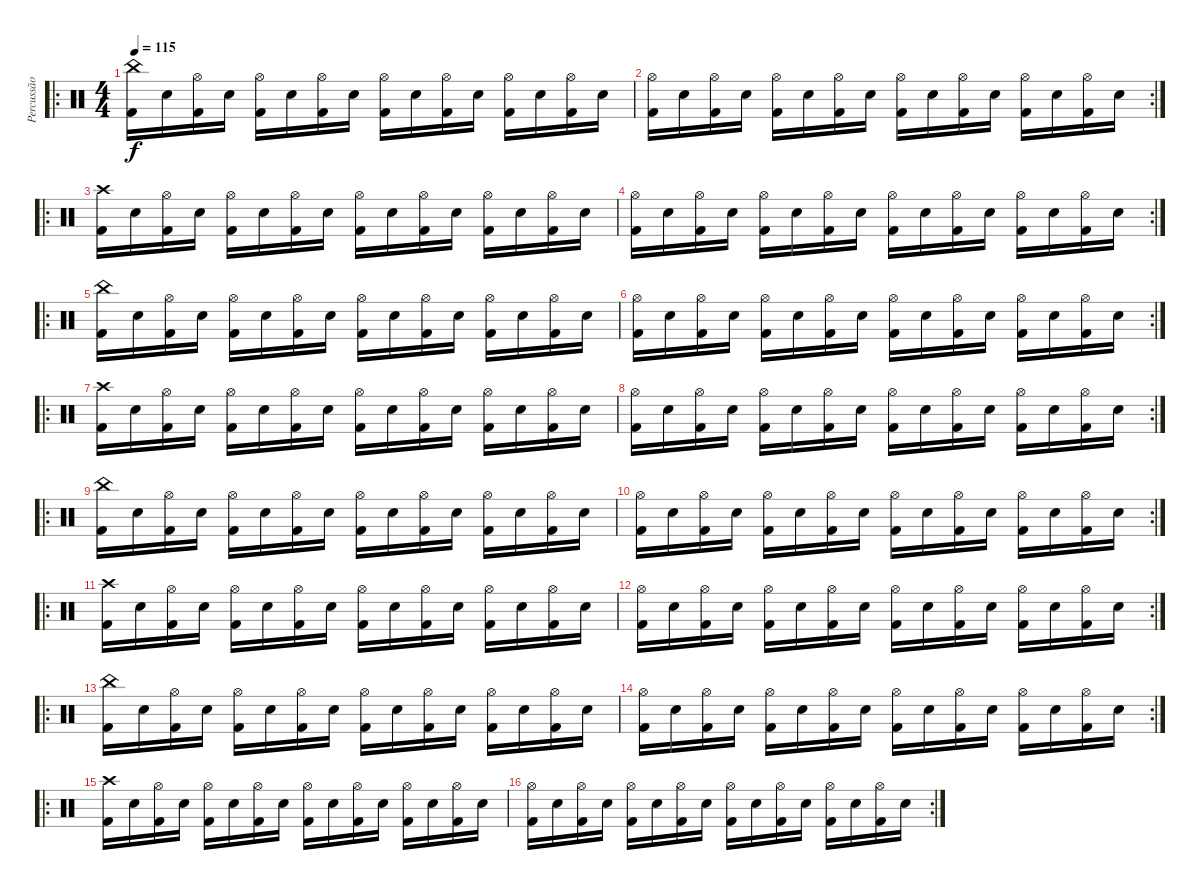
\track ("Percussão" "Percussão") {instrument percussion}
\staff {score}
\articulation defaults
\ro
\ts (4 4)
\tempo 115
\clef neutral
\ks c
("China (hit)" "Kick (hit) 2").16{dy f} "Electric Snare (hit)".16 ("Hi-Hat (open)" "Kick (hit) 2").16 "Electric Snare (hit)".16 ("Hi-Hat (open)" "Kick (hit) 2").16 "Electric Snare (hit)".16 ("Hi-Hat (open)" "Kick (hit) 2").16 "Electric Snare (hit)".16 ("Hi-Hat (open)" "Kick (hit) 2").16 "Electric Snare (hit)".16 ("Hi-Hat (open)" "Kick (hit) 2").16 "Electric Snare (hit)".16 ("Hi-Hat (open)" "Kick (hit) 2").16 "Electric Snare (hit)".16 ("Hi-Hat (open)" "Kick (hit) 2").16 "Electric Snare (hit)".16 |
\rc 2
("Hi-Hat (open)" "Kick (hit) 2").16 "Electric Snare (hit)".16 ("Hi-Hat (open)" "Kick (hit) 2").16 "Electric Snare (hit)".16 ("Hi-Hat (open)" "Kick (hit) 2").16 "Electric Snare (hit)".16 ("Hi-Hat (open)" "Kick (hit) 2").16 "Electric Snare (hit)".16 ("Hi-Hat (open)" "Kick (hit) 2").16 "Electric Snare (hit)".16 ("Hi-Hat (open)" "Kick (hit) 2").16 "Electric Snare (hit)".16 ("Hi-Hat (open)" "Kick (hit) 2").16 "Electric Snare (hit)".16 ("Hi-Hat (open)" "Kick (hit) 2").16 "Electric Snare (hit)".16 |
\ro
("Crash high (hit)" "Kick (hit) 2").16 "Electric Snare (hit)".16 ("Hi-Hat (open)" "Kick (hit) 2").16 "Electric Snare (hit)".16 ("Hi-Hat (open)" "Kick (hit) 2").16 "Electric Snare (hit)".16 ("Hi-Hat (open)" "Kick (hit) 2").16 "Electric Snare (hit)".16 ("Hi-Hat (open)" "Kick (hit) 2").16 "Electric Snare (hit)".16 ("Hi-Hat (open)" "Kick (hit) 2").16 "Electric Snare (hit)".16 ("Hi-Hat (open)" "Kick (hit) 2").16 "Electric Snare (hit)".16 ("Hi-Hat (open)" "Kick (hit) 2").16 "Electric Snare (hit)".16 |
\rc 2
("Hi-Hat (open)" "Kick (hit) 2").16 "Electric Snare (hit)".16 ("Hi-Hat (open)" "Kick (hit) 2").16 "Electric Snare (hit)".16 ("Hi-Hat (open)" "Kick (hit) 2").16 "Electric Snare (hit)".16 ("Hi-Hat (open)" "Kick (hit) 2").16 "Electric Snare (hit)".16 ("Hi-Hat (open)" "Kick (hit) 2").16 "Electric Snare (hit)".16 ("Hi-Hat (open)" "Kick (hit) 2").16 "Electric Snare (hit)".16 ("Hi-Hat (open)" "Kick (hit) 2").16 "Electric Snare (hit)".16 ("Hi-Hat (open)" "Kick (hit) 2").16 "Electric Snare (hit)".16 |
\ro
("China (hit)" "Kick (hit) 2").16 "Electric Snare (hit)".16 ("Hi-Hat (open)" "Kick (hit) 2").16 "Electric Snare (hit)".16 ("Hi-Hat (open)" "Kick (hit) 2").16 "Electric Snare (hit)".16 ("Hi-Hat (open)" "Kick (hit) 2").16 "Electric Snare (hit)".16 ("Hi-Hat (open)" "Kick (hit) 2").16 "Electric Snare (hit)".16 ("Hi-Hat (open)" "Kick (hit) 2").16 "Electric Snare (hit)".16 ("Hi-Hat (open)" "Kick (hit) 2").16 "Electric Snare (hit)".16 ("Hi-Hat (open)" "Kick (hit) 2").16 "Electric Snare (hit)".16 |
\rc 2
("Hi-Hat (open)" "Kick (hit) 2").16 "Electric Snare (hit)".16 ("Hi-Hat (open)" "Kick (hit) 2").16 "Electric Snare (hit)".16 ("Hi-Hat (open)" "Kick (hit) 2").16 "Electric Snare (hit)".16 ("Hi-Hat (open)" "Kick (hit) 2").16 "Electric Snare (hit)".16 ("Hi-Hat (open)" "Kick (hit) 2").16 "Electric Snare (hit)".16 ("Hi-Hat (open)" "Kick (hit) 2").16 "Electric Snare (hit)".16 ("Hi-Hat (open)" "Kick (hit) 2").16 "Electric Snare (hit)".16 ("Hi-Hat (open)" "Kick (hit) 2").16 "Electric Snare (hit)".16 |
\ro
("Crash high (hit)" "Kick (hit) 2").16 "Electric Snare (hit)".16 ("Hi-Hat (open)" "Kick (hit) 2").16 "Electric Snare (hit)".16 ("Hi-Hat (open)" "Kick (hit) 2").16 "Electric Snare (hit)".16 ("Hi-Hat (open)" "Kick (hit) 2").16 "Electric Snare (hit)".16 ("Hi-Hat (open)" "Kick (hit) 2").16 "Electric Snare (hit)".16 ("Hi-Hat (open)" "Kick (hit) 2").16 "Electric Snare (hit)".16 ("Hi-Hat (open)" "Kick (hit) 2").16 "Electric Snare (hit)".16 ("Hi-Hat (open)" "Kick (hit) 2").16 "Electric Snare (hit)".16 |
\rc 2
("Hi-Hat (open)" "Kick (hit) 2").16 "Electric Snare (hit)".16 ("Hi-Hat (open)" "Kick (hit) 2").16 "Electric Snare (hit)".16 ("Hi-Hat (open)" "Kick (hit) 2").16 "Electric Snare (hit)".16 ("Hi-Hat (open)" "Kick (hit) 2").16 "Electric Snare (hit)".16 ("Hi-Hat (open)" "Kick (hit) 2").16 "Electric Snare (hit)".16 ("Hi-Hat (open)" "Kick (hit) 2").16 "Electric Snare (hit)".16 ("Hi-Hat (open)" "Kick (hit) 2").16 "Electric Snare (hit)".16 ("Hi-Hat (open)" "Kick (hit) 2").16 "Electric Snare (hit)".16 |
\ro
("China (hit)" "Kick (hit) 2").16 "Electric Snare (hit)".16 ("Hi-Hat (open)" "Kick (hit) 2").16 "Electric Snare (hit)".16 ("Hi-Hat (open)" "Kick (hit) 2").16 "Electric Snare (hit)".16 ("Hi-Hat (open)" "Kick (hit) 2").16 "Electric Snare (hit)".16 ("Hi-Hat (open)" "Kick (hit) 2").16 "Electric Snare (hit)".16 ("Hi-Hat (open)" "Kick (hit) 2").16 "Electric Snare (hit)".16 ("Hi-Hat (open)" "Kick (hit) 2").16 "Electric Snare (hit)".16 ("Hi-Hat (open)" "Kick (hit) 2").16 "Electric Snare (hit)".16 |
\rc 2
("Hi-Hat (open)" "Kick (hit) 2").16 "Electric Snare (hit)".16 ("Hi-Hat (open)" "Kick (hit) 2").16 "Electric Snare (hit)".16 ("Hi-Hat (open)" "Kick (hit) 2").16 "Electric Snare (hit)".16 ("Hi-Hat (open)" "Kick (hit) 2").16 "Electric Snare (hit)".16 ("Hi-Hat (open)" "Kick (hit) 2").16 "Electric Snare (hit)".16 ("Hi-Hat (open)" "Kick (hit) 2").16 "Electric Snare (hit)".16 ("Hi-Hat (open)" "Kick (hit) 2").16 "Electric Snare (hit)".16 ("Hi-Hat (open)" "Kick (hit) 2").16 "Electric Snare (hit)".16 |
\ro
("Crash high (hit)" "Kick (hit) 2").16 "Electric Snare (hit)".16 ("Hi-Hat (open)" "Kick (hit) 2").16 "Electric Snare (hit)".16 ("Hi-Hat (open)" "Kick (hit) 2").16 "Electric Snare (hit)".16 ("Hi-Hat (open)" "Kick (hit) 2").16 "Electric Snare (hit)".16 ("Hi-Hat (open)" "Kick (hit) 2").16 "Electric Snare (hit)".16 ("Hi-Hat (open)" "Kick (hit) 2").16 "Electric Snare (hit)".16 ("Hi-Hat (open)" "Kick (hit) 2").16 "Electric Snare (hit)".16 ("Hi-Hat (open)" "Kick (hit) 2").16 "Electric Snare (hit)".16 |
\rc 2
("Hi-Hat (open)" "Kick (hit) 2").16 "Electric Snare (hit)".16 ("Hi-Hat (open)" "Kick (hit) 2").16 "Electric Snare (hit)".16 ("Hi-Hat (open)" "Kick (hit) 2").16 "Electric Snare (hit)".16 ("Hi-Hat (open)" "Kick (hit) 2").16 "Electric Snare (hit)".16 ("Hi-Hat (open)" "Kick (hit) 2").16 "Electric Snare (hit)".16 ("Hi-Hat (open)" "Kick (hit) 2").16 "Electric Snare (hit)".16 ("Hi-Hat (open)" "Kick (hit) 2").16 "Electric Snare (hit)".16 ("Hi-Hat (open)" "Kick (hit) 2").16 "Electric Snare (hit)".16 |
\ro
("China (hit)" "Kick (hit) 2").16 "Electric Snare (hit)".16 ("Hi-Hat (open)" "Kick (hit) 2").16 "Electric Snare (hit)".16 ("Hi-Hat (open)" "Kick (hit) 2").16 "Electric Snare (hit)".16 ("Hi-Hat (open)" "Kick (hit) 2").16 "Electric Snare (hit)".16 ("Hi-Hat (open)" "Kick (hit) 2").16 "Electric Snare (hit)".16 ("Hi-Hat (open)" "Kick (hit) 2").16 "Electric Snare (hit)".16 ("Hi-Hat (open)" "Kick (hit) 2").16 "Electric Snare (hit)".16 ("Hi-Hat (open)" "Kick (hit) 2").16 "Electric Snare (hit)".16 |
\rc 2
("Hi-Hat (open)" "Kick (hit) 2").16 "Electric Snare (hit)".16 ("Hi-Hat (open)" "Kick (hit) 2").16 "Electric Snare (hit)".16 ("Hi-Hat (open)" "Kick (hit) 2").16 "Electric Snare (hit)".16 ("Hi-Hat (open)" "Kick (hit) 2").16 "Electric Snare (hit)".16 ("Hi-Hat (open)" "Kick (hit) 2").16 "Electric Snare (hit)".16 ("Hi-Hat (open)" "Kick (hit) 2").16 "Electric Snare (hit)".16 ("Hi-Hat (open)" "Kick (hit) 2").16 "Electric Snare (hit)".16 ("Hi-Hat (open)" "Kick (hit) 2").16 "Electric Snare (hit)".16 |
\ro
("Crash high (hit)" "Kick (hit) 2").16 "Electric Snare (hit)".16 ("Hi-Hat (open)" "Kick (hit) 2").16 "Electric Snare (hit)".16 ("Hi-Hat (open)" "Kick (hit) 2").16 "Electric Snare (hit)".16 ("Hi-Hat (open)" "Kick (hit) 2").16 "Electric Snare (hit)".16 ("Hi-Hat (open)" "Kick (hit) 2").16 "Electric Snare (hit)".16 ("Hi-Hat (open)" "Kick (hit) 2").16 "Electric Snare (hit)".16 ("Hi-Hat (open)" "Kick (hit) 2").16 "Electric Snare (hit)".16 ("Hi-Hat (open)" "Kick (hit) 2").16 "Electric Snare (hit)".16 |
\rc 2
("Hi-Hat (open)" "Kick (hit) 2").16 "Electric Snare (hit)".16 ("Hi-Hat (open)" "Kick (hit) 2").16 "Electric Snare (hit)".16 ("Hi-Hat (open)" "Kick (hit) 2").16 "Electric Snare (hit)".16 ("Hi-Hat (open)" "Kick (hit) 2").16 "Electric Snare (hit)".16 ("Hi-Hat (open)" "Kick (hit) 2").16 "Electric Snare (hit)".16 ("Hi-Hat (open)" "Kick (hit) 2").16 "Electric Snare (hit)".16 ("Hi-Hat (open)" "Kick (hit) 2").16 "Electric Snare (hit)".16 ("Hi-Hat (open)" "Kick (hit) 2").16 "Electric Snare (hit)".16
